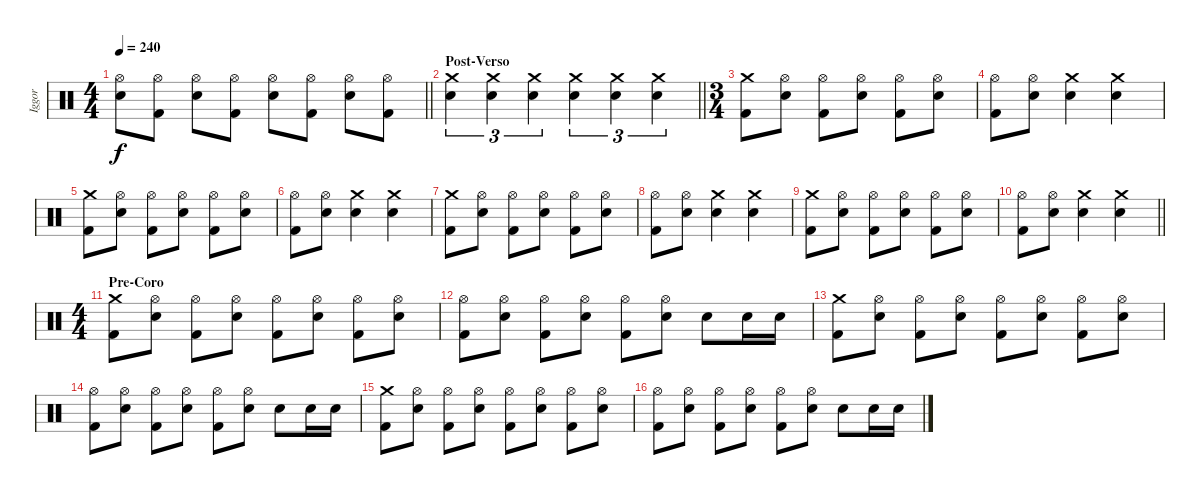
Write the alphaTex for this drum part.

\track ("Iggor" "Iggor") {instrument percussion}
\staff {score}
\articulation defaults
\ts (4 4)
\tempo 240
\clef neutral
\barLineRight lightlight
\ks c
("Hi-Hat (open)" "Snare (hit) 2").8{dy f} ("Hi-Hat (open)" "Kick (hit) 2").8 ("Hi-Hat (open)" "Snare (hit) 2").8 ("Hi-Hat (open)" "Kick (hit) 2").8 ("Hi-Hat (open)" "Snare (hit) 2").8 ("Hi-Hat (open)" "Kick (hit) 2").8 ("Hi-Hat (open)" "Snare (hit) 2").8 ("Hi-Hat (open)" "Kick (hit) 2").8 |
\section ("" "Post-Verso")
\barLineRight lightlight
("Crash medium (hit)" "Snare (hit) 2").4{tu (3 2)} ("Crash medium (hit)" "Snare (hit) 2").4{tu (3 2)} ("Crash medium (hit)" "Snare (hit) 2").4{tu (3 2)} ("Crash medium (hit)" "Snare (hit) 2").4{tu (3 2)} ("Crash medium (hit)" "Snare (hit) 2").4{tu (3 2)} ("Crash medium (hit)" "Snare (hit) 2").4{tu (3 2)} |
\ts (3 4)
("Crash medium (hit)" "Kick (hit) 2").8 ("Hi-Hat (open)" "Snare (hit) 2").8 ("Hi-Hat (open)" "Kick (hit) 2").8 ("Hi-Hat (open)" "Snare (hit) 2").8 ("Hi-Hat (open)" "Kick (hit) 2").8 ("Hi-Hat (open)" "Snare (hit) 2").8 |
("Hi-Hat (open)" "Kick (hit) 2").8 ("Hi-Hat (open)" "Snare (hit) 2").8 ("Crash medium (hit)" "Snare (hit) 2").4 ("Crash medium (hit)" "Snare (hit) 2").4 |
("Crash medium (hit)" "Kick (hit) 2").8 ("Hi-Hat (open)" "Snare (hit) 2").8 ("Hi-Hat (open)" "Kick (hit) 2").8 ("Hi-Hat (open)" "Snare (hit) 2").8 ("Hi-Hat (open)" "Kick (hit) 2").8 ("Hi-Hat (open)" "Snare (hit) 2").8 |
("Hi-Hat (open)" "Kick (hit) 2").8 ("Hi-Hat (open)" "Snare (hit) 2").8 ("Crash medium (hit)" "Snare (hit) 2").4 ("Crash medium (hit)" "Snare (hit) 2").4 |
("Crash medium (hit)" "Kick (hit) 2").8 ("Hi-Hat (open)" "Snare (hit) 2").8 ("Hi-Hat (open)" "Kick (hit) 2").8 ("Hi-Hat (open)" "Snare (hit) 2").8 ("Hi-Hat (open)" "Kick (hit) 2").8 ("Hi-Hat (open)" "Snare (hit) 2").8 |
("Hi-Hat (open)" "Kick (hit) 2").8 ("Hi-Hat (open)" "Snare (hit) 2").8 ("Crash medium (hit)" "Snare (hit) 2").4 ("Crash medium (hit)" "Snare (hit) 2").4 |
("Crash medium (hit)" "Kick (hit) 2").8 ("Hi-Hat (open)" "Snare (hit) 2").8 ("Hi-Hat (open)" "Kick (hit) 2").8 ("Hi-Hat (open)" "Snare (hit) 2").8 ("Hi-Hat (open)" "Kick (hit) 2").8 ("Hi-Hat (open)" "Snare (hit) 2").8 |
\barLineRight lightlight
("Hi-Hat (open)" "Kick (hit) 2").8 ("Hi-Hat (open)" "Snare (hit) 2").8 ("Crash medium (hit)" "Snare (hit) 2").4 ("Crash medium (hit)" "Snare (hit) 2").4 |
\ts (4 4)
\section ("" "Pre-Coro")
("Crash medium (hit)" "Kick (hit) 2").8 ("Hi-Hat (open)" "Snare (hit) 2").8 ("Hi-Hat (open)" "Kick (hit) 2").8 ("Hi-Hat (open)" "Snare (hit) 2").8 ("Hi-Hat (open)" "Kick (hit) 2").8 ("Hi-Hat (open)" "Snare (hit) 2").8 ("Hi-Hat (open)" "Kick (hit) 2").8 ("Hi-Hat (open)" "Snare (hit) 2").8 |
("Hi-Hat (open)" "Kick (hit) 2").8 ("Hi-Hat (open)" "Snare (hit) 2").8 ("Hi-Hat (open)" "Kick (hit) 2").8 ("Hi-Hat (open)" "Snare (hit) 2").8 ("Hi-Hat (open)" "Kick (hit) 2").8 ("Hi-Hat (open)" "Snare (hit) 2").8 "Snare (hit) 2".8 "Snare (hit) 2".16 "Snare (hit) 2".16 |
("Crash medium (hit)" "Kick (hit) 2").8 ("Hi-Hat (open)" "Snare (hit) 2").8 ("Hi-Hat (open)" "Kick (hit) 2").8 ("Hi-Hat (open)" "Snare (hit) 2").8 ("Hi-Hat (open)" "Kick (hit) 2").8 ("Hi-Hat (open)" "Snare (hit) 2").8 ("Hi-Hat (open)" "Kick (hit) 2").8 ("Hi-Hat (open)" "Snare (hit) 2").8 |
("Hi-Hat (open)" "Kick (hit) 2").8 ("Hi-Hat (open)" "Snare (hit) 2").8 ("Hi-Hat (open)" "Kick (hit) 2").8 ("Hi-Hat (open)" "Snare (hit) 2").8 ("Hi-Hat (open)" "Kick (hit) 2").8 ("Hi-Hat (open)" "Snare (hit) 2").8 "Snare (hit) 2".8 "Snare (hit) 2".16 "Snare (hit) 2".16 |
("Crash medium (hit)" "Kick (hit) 2").8 ("Hi-Hat (open)" "Snare (hit) 2").8 ("Hi-Hat (open)" "Kick (hit) 2").8 ("Hi-Hat (open)" "Snare (hit) 2").8 ("Hi-Hat (open)" "Kick (hit) 2").8 ("Hi-Hat (open)" "Snare (hit) 2").8 ("Hi-Hat (open)" "Kick (hit) 2").8 ("Hi-Hat (open)" "Snare (hit) 2").8 |
("Hi-Hat (open)" "Kick (hit) 2").8 ("Hi-Hat (open)" "Snare (hit) 2").8 ("Hi-Hat (open)" "Kick (hit) 2").8 ("Hi-Hat (open)" "Snare (hit) 2").8 ("Hi-Hat (open)" "Kick (hit) 2").8 ("Hi-Hat (open)" "Snare (hit) 2").8 "Snare (hit) 2".8 "Snare (hit) 2".16 "Snare (hit) 2".16
